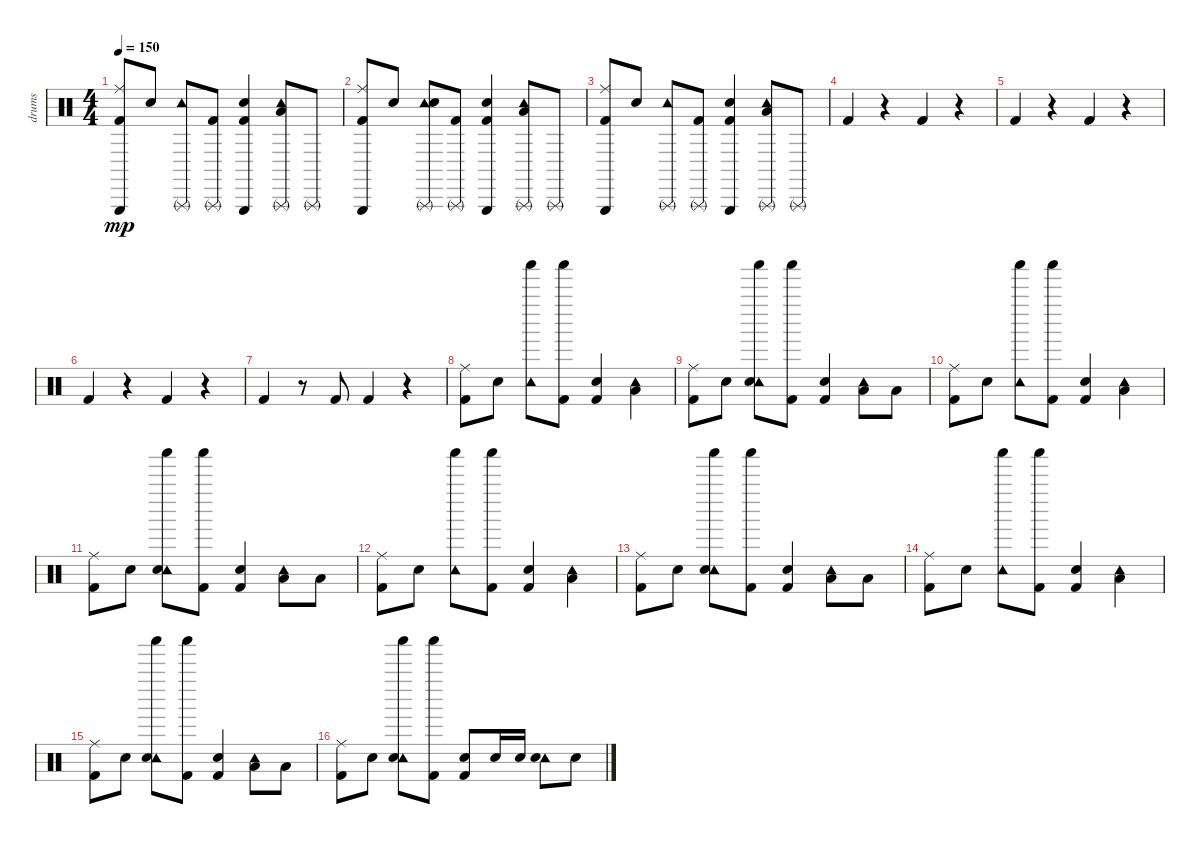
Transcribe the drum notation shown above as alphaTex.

\track ("drums" "drums") {instrument percussion}
\staff {score}
\articulation defaults
\ts (4 4)
\tempo 150
\clef neutral
\ks c
("Triangle (hit)" "Ride (middle)" "Kick (hit) 2").8{dy mp} "Snare (hit) 2".8 ("Triangle (rnute)" "Tambourine (hit)").8 ("Triangle (rnute)" "Kick (hit) 2").8 ("Triangle (hit)" "Kick (hit) 2" "Snare (hit) 2").4 ("Tambourine (hit)" "Low Tom (hit)" "Triangle (rnute)").8 "Triangle (rnute)".8 |
("Triangle (hit)" "Ride (middle)" "Kick (hit) 2").8 "Snare (hit) 2".8 ("Triangle (rnute)" "Tambourine (hit)" "Snare (hit) 2").8 ("Triangle (rnute)" "Kick (hit) 2").8 ("Triangle (hit)" "Kick (hit) 2" "Snare (hit) 2").4 ("Tambourine (hit)" "Low Tom (hit)" "Triangle (rnute)").8 "Triangle (rnute)".8 |
("Triangle (hit)" "Ride (middle)" "Kick (hit) 2").8 "Snare (hit) 2".8 ("Triangle (rnute)" "Tambourine (hit)").8 ("Triangle (rnute)" "Kick (hit) 2").8 ("Triangle (hit)" "Kick (hit) 2" "Snare (hit) 2").4 ("Tambourine (hit)" "Low Tom (hit)" "Triangle (rnute)").8 "Triangle (rnute)".8 |
"Kick (hit) 2".4 r.4 "Kick (hit) 2".4 r.4 |
"Kick (hit) 2".4 r.4 "Kick (hit) 2".4 r.4 |
"Kick (hit) 2".4 r.4 "Kick (hit) 2".4 r.4 |
"Kick (hit) 2".4 r.8 "Kick (hit) 2".8 "Kick (hit) 2".4 r.4 |
("Ride (middle)" "Kick (hit) 2").8 "Snare (hit) 2".8 ("Shaker (hit)" "Tambourine (hit)").8 ("Shaker (hit)" "Kick (hit) 2").8 ("Kick (hit) 2" "Snare (hit) 2").4 ("Tambourine (hit)" "Low Tom (hit)").4 |
("Ride (middle)" "Kick (hit) 2").8 "Snare (hit) 2".8 ("Shaker (hit)" "Tambourine (hit)" "Snare (hit) 2").8 ("Shaker (hit)" "Kick (hit) 2").8 ("Kick (hit) 2" "Snare (hit) 2").4 ("Tambourine (hit)" "Low Tom (hit)").8 "Low Tom (hit)".8 |
("Ride (middle)" "Kick (hit) 2").8 "Snare (hit) 2".8 ("Shaker (hit)" "Tambourine (hit)").8 ("Shaker (hit)" "Kick (hit) 2").8 ("Kick (hit) 2" "Snare (hit) 2").4 ("Tambourine (hit)" "Low Tom (hit)").4 |
("Ride (middle)" "Kick (hit) 2").8 "Snare (hit) 2".8 ("Shaker (hit)" "Tambourine (hit)" "Snare (hit) 2").8 ("Shaker (hit)" "Kick (hit) 2").8 ("Kick (hit) 2" "Snare (hit) 2").4 ("Tambourine (hit)" "Low Tom (hit)").8 "Low Tom (hit)".8 |
("Ride (middle)" "Kick (hit) 2").8 "Snare (hit) 2".8 ("Shaker (hit)" "Tambourine (hit)").8 ("Shaker (hit)" "Kick (hit) 2").8 ("Kick (hit) 2" "Snare (hit) 2").4 ("Tambourine (hit)" "Low Tom (hit)").4 |
("Ride (middle)" "Kick (hit) 2").8 "Snare (hit) 2".8 ("Shaker (hit)" "Tambourine (hit)" "Snare (hit) 2").8 ("Shaker (hit)" "Kick (hit) 2").8 ("Kick (hit) 2" "Snare (hit) 2").4 ("Tambourine (hit)" "Low Tom (hit)").8 "Low Tom (hit)".8 |
("Ride (middle)" "Kick (hit) 2").8 "Snare (hit) 2".8 ("Shaker (hit)" "Tambourine (hit)").8 ("Shaker (hit)" "Kick (hit) 2").8 ("Kick (hit) 2" "Snare (hit) 2").4 ("Tambourine (hit)" "Low Tom (hit)").4 |
("Ride (middle)" "Kick (hit) 2").8 "Snare (hit) 2".8 ("Shaker (hit)" "Tambourine (hit)" "Snare (hit) 2").8 ("Shaker (hit)" "Kick (hit) 2").8 ("Kick (hit) 2" "Snare (hit) 2").4 ("Tambourine (hit)" "Low Tom (hit)").8 "Low Tom (hit)".8 |
("Ride (middle)" "Kick (hit) 2").8 "Snare (hit) 2".8 ("Shaker (hit)" "Tambourine (hit)" "Snare (hit) 2").8 ("Shaker (hit)" "Kick (hit) 2").8 ("Kick (hit) 2" "Snare (hit) 2").8 "Snare (hit) 2".16 "Snare (hit) 2".16 ("Tambourine (hit)" "Snare (hit) 2").8 "Snare (hit) 2".8
